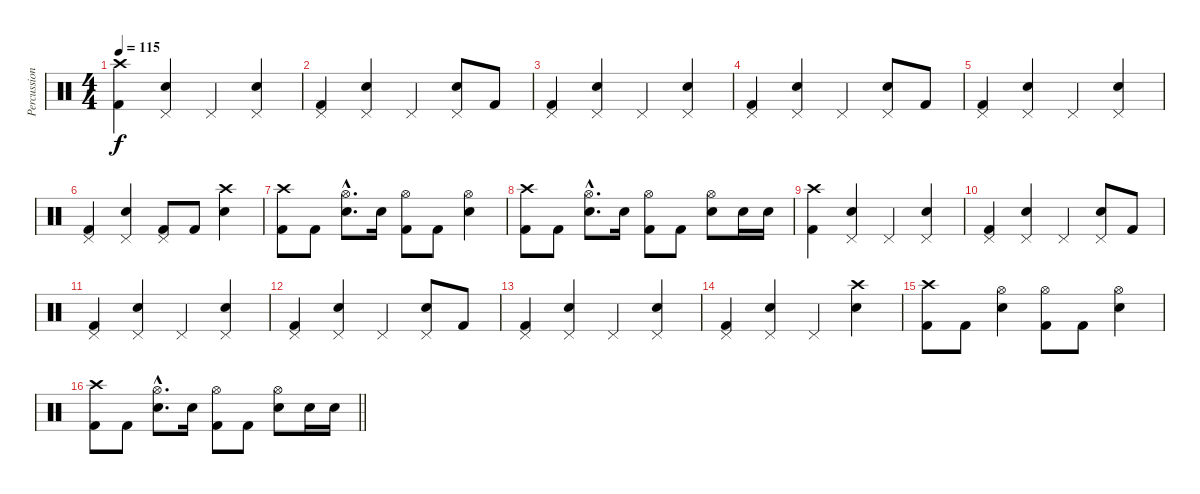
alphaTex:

\track ("Percussion" "Percussion") {instrument percussion}
\staff {score}
\articulation defaults
\ts (4 4)
\tempo 115
\clef neutral
\ks c
("Crash high (hit)" "Kick (hit) 2").4{dy f} ("Pedal Hi-Hat (hit)" "Snare (hit) 2").4 "Pedal Hi-Hat (hit)".4 ("Pedal Hi-Hat (hit)" "Snare (hit) 2").4 |
("Pedal Hi-Hat (hit)" "Kick (hit) 2").4 ("Pedal Hi-Hat (hit)" "Snare (hit) 2").4 "Pedal Hi-Hat (hit)".4 ("Pedal Hi-Hat (hit)" "Snare (hit) 2").8 "Kick (hit) 2".8 |
("Pedal Hi-Hat (hit)" "Kick (hit) 2").4 ("Pedal Hi-Hat (hit)" "Snare (hit) 2").4 "Pedal Hi-Hat (hit)".4 ("Pedal Hi-Hat (hit)" "Snare (hit) 2").4 |
("Pedal Hi-Hat (hit)" "Kick (hit) 2").4 ("Pedal Hi-Hat (hit)" "Snare (hit) 2").4 "Pedal Hi-Hat (hit)".4 ("Pedal Hi-Hat (hit)" "Snare (hit) 2").8 "Kick (hit) 2".8 |
("Pedal Hi-Hat (hit)" "Kick (hit) 2").4 ("Pedal Hi-Hat (hit)" "Snare (hit) 2").4 "Pedal Hi-Hat (hit)".4 ("Pedal Hi-Hat (hit)" "Snare (hit) 2").4 |
("Pedal Hi-Hat (hit)" "Kick (hit) 2").4 ("Pedal Hi-Hat (hit)" "Snare (hit) 2").4 ("Pedal Hi-Hat (hit)" "Kick (hit) 2").8 "Kick (hit) 2".8 ("Crash high (hit)" "Snare (hit) 2").4 |
("Crash high (hit)" "Kick (hit) 2").8 "Kick (hit) 2".8 ("Hi-Hat (open)"{hac} "Snare (hit) 2"{hac}).8{d} "Snare (hit) 2".16 ("Hi-Hat (open)" "Kick (hit) 2").8 "Kick (hit) 2".8 ("Hi-Hat (open)" "Snare (hit) 2").4 |
("Crash high (hit)" "Kick (hit) 2").8 "Kick (hit) 2".8 ("Hi-Hat (open)"{hac} "Snare (hit) 2"{hac}).8{d} "Snare (hit) 2".16 ("Hi-Hat (open)" "Kick (hit) 2").8 "Kick (hit) 2".8 ("Hi-Hat (open)" "Snare (hit) 2").8 "Snare (hit) 2".16 "Snare (hit) 2".16 |
("Crash high (hit)" "Kick (hit) 2").4 ("Pedal Hi-Hat (hit)" "Snare (hit) 2").4 "Pedal Hi-Hat (hit)".4 ("Pedal Hi-Hat (hit)" "Snare (hit) 2").4 |
("Pedal Hi-Hat (hit)" "Kick (hit) 2").4 ("Pedal Hi-Hat (hit)" "Snare (hit) 2").4 "Pedal Hi-Hat (hit)".4 ("Pedal Hi-Hat (hit)" "Snare (hit) 2").8 "Kick (hit) 2".8 |
("Pedal Hi-Hat (hit)" "Kick (hit) 2").4 ("Pedal Hi-Hat (hit)" "Snare (hit) 2").4 "Pedal Hi-Hat (hit)".4 ("Pedal Hi-Hat (hit)" "Snare (hit) 2").4 |
("Pedal Hi-Hat (hit)" "Kick (hit) 2").4 ("Pedal Hi-Hat (hit)" "Snare (hit) 2").4 "Pedal Hi-Hat (hit)".4 ("Pedal Hi-Hat (hit)" "Snare (hit) 2").8 "Kick (hit) 2".8 |
("Pedal Hi-Hat (hit)" "Kick (hit) 2").4 ("Pedal Hi-Hat (hit)" "Snare (hit) 2").4 "Pedal Hi-Hat (hit)".4 ("Pedal Hi-Hat (hit)" "Snare (hit) 2").4 |
("Pedal Hi-Hat (hit)" "Kick (hit) 2").4 ("Pedal Hi-Hat (hit)" "Snare (hit) 2").4 "Pedal Hi-Hat (hit)".4 ("Crash high (hit)" "Snare (hit) 2").4 |
("Crash high (hit)" "Kick (hit) 2").8 "Kick (hit) 2".8 ("Hi-Hat (open)" "Snare (hit) 2").4 ("Hi-Hat (open)" "Kick (hit) 2").8 "Kick (hit) 2".8 ("Hi-Hat (open)" "Snare (hit) 2").4 |
\barLineRight lightlight
("Crash high (hit)" "Kick (hit) 2").8 "Kick (hit) 2".8 ("Hi-Hat (open)"{hac} "Snare (hit) 2"{hac}).8{d} "Snare (hit) 2".16 ("Hi-Hat (open)" "Kick (hit) 2").8 "Kick (hit) 2".8 ("Hi-Hat (open)" "Snare (hit) 2").8 "Snare (hit) 2".16 "Snare (hit) 2".16
